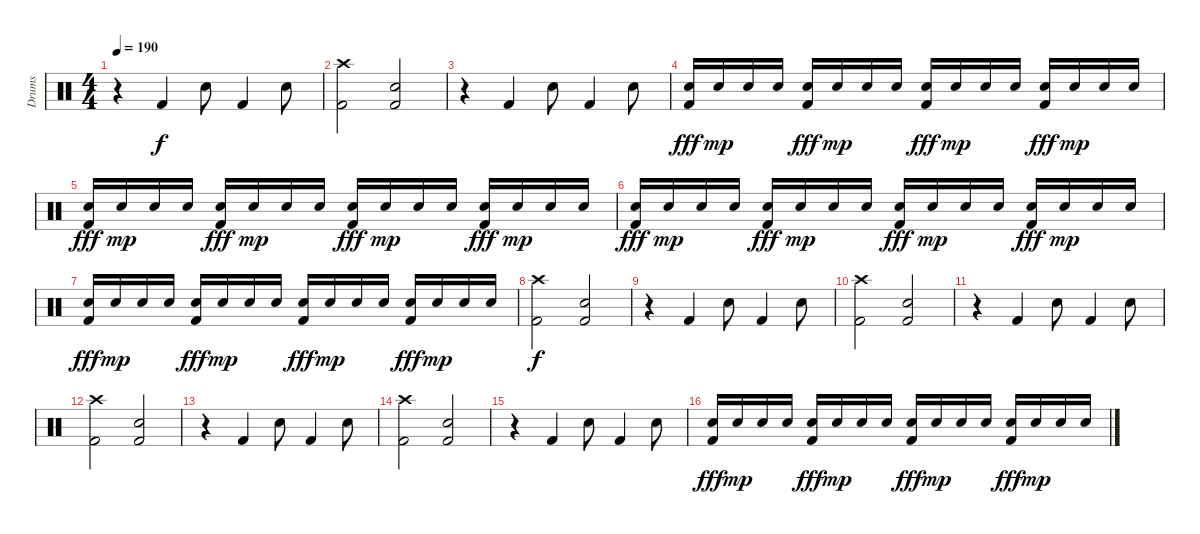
\track ("Drums" "Drums") {instrument percussion}
\staff {score}
\articulation defaults
\ts (4 4)
\tempo 190
\clef neutral
\ks c
r.4{dy f} "Kick (hit) 2".4 "Snare (hit) 2".8 "Kick (hit) 2".4 "Snare (hit) 2".8 |
("Crash high (hit)" "Kick (hit) 2").2 ("Snare (hit) 2" "Kick (hit) 2").2 |
r.4 "Kick (hit) 2".4 "Snare (hit) 2".8 "Kick (hit) 2".4 "Snare (hit) 2".8 |
("Snare (hit) 2" "Kick (hit) 2").16{dy fff} "Snare (hit) 2".16{dy mp} "Snare (hit) 2".16 "Snare (hit) 2".16 ("Snare (hit) 2" "Kick (hit) 2").16{dy fff} "Snare (hit) 2".16{dy mp} "Snare (hit) 2".16 "Snare (hit) 2".16 ("Snare (hit) 2" "Kick (hit) 2").16{dy fff} "Snare (hit) 2".16{dy mp} "Snare (hit) 2".16 "Snare (hit) 2".16 ("Snare (hit) 2" "Kick (hit) 2").16{dy fff} "Snare (hit) 2".16{dy mp} "Snare (hit) 2".16 "Snare (hit) 2".16 |
("Snare (hit) 2" "Kick (hit) 2").16{dy fff} "Snare (hit) 2".16{dy mp} "Snare (hit) 2".16 "Snare (hit) 2".16 ("Snare (hit) 2" "Kick (hit) 2").16{dy fff} "Snare (hit) 2".16{dy mp} "Snare (hit) 2".16 "Snare (hit) 2".16 ("Snare (hit) 2" "Kick (hit) 2").16{dy fff} "Snare (hit) 2".16{dy mp} "Snare (hit) 2".16 "Snare (hit) 2".16 ("Snare (hit) 2" "Kick (hit) 2").16{dy fff} "Snare (hit) 2".16{dy mp} "Snare (hit) 2".16 "Snare (hit) 2".16 |
("Snare (hit) 2" "Kick (hit) 2").16{dy fff} "Snare (hit) 2".16{dy mp} "Snare (hit) 2".16 "Snare (hit) 2".16 ("Snare (hit) 2" "Kick (hit) 2").16{dy fff} "Snare (hit) 2".16{dy mp} "Snare (hit) 2".16 "Snare (hit) 2".16 ("Snare (hit) 2" "Kick (hit) 2").16{dy fff} "Snare (hit) 2".16{dy mp} "Snare (hit) 2".16 "Snare (hit) 2".16 ("Snare (hit) 2" "Kick (hit) 2").16{dy fff} "Snare (hit) 2".16{dy mp} "Snare (hit) 2".16 "Snare (hit) 2".16 |
("Snare (hit) 2" "Kick (hit) 2").16{dy fff} "Snare (hit) 2".16{dy mp} "Snare (hit) 2".16 "Snare (hit) 2".16 ("Snare (hit) 2" "Kick (hit) 2").16{dy fff} "Snare (hit) 2".16{dy mp} "Snare (hit) 2".16 "Snare (hit) 2".16 ("Snare (hit) 2" "Kick (hit) 2").16{dy fff} "Snare (hit) 2".16{dy mp} "Snare (hit) 2".16 "Snare (hit) 2".16 ("Snare (hit) 2" "Kick (hit) 2").16{dy fff} "Snare (hit) 2".16{dy mp} "Snare (hit) 2".16 "Snare (hit) 2".16 |
("Crash high (hit)" "Kick (hit) 2").2{dy f} ("Snare (hit) 2" "Kick (hit) 2").2 |
r.4 "Kick (hit) 2".4 "Snare (hit) 2".8 "Kick (hit) 2".4 "Snare (hit) 2".8 |
("Crash high (hit)" "Kick (hit) 2").2 ("Snare (hit) 2" "Kick (hit) 2").2 |
r.4 "Kick (hit) 2".4 "Snare (hit) 2".8 "Kick (hit) 2".4 "Snare (hit) 2".8 |
("Crash high (hit)" "Kick (hit) 2").2 ("Snare (hit) 2" "Kick (hit) 2").2 |
r.4 "Kick (hit) 2".4 "Snare (hit) 2".8 "Kick (hit) 2".4 "Snare (hit) 2".8 |
("Crash high (hit)" "Kick (hit) 2").2 ("Snare (hit) 2" "Kick (hit) 2").2 |
r.4 "Kick (hit) 2".4 "Snare (hit) 2".8 "Kick (hit) 2".4 "Snare (hit) 2".8 |
("Snare (hit) 2" "Kick (hit) 2").16{dy fff} "Snare (hit) 2".16{dy mp} "Snare (hit) 2".16 "Snare (hit) 2".16 ("Snare (hit) 2" "Kick (hit) 2").16{dy fff} "Snare (hit) 2".16{dy mp} "Snare (hit) 2".16 "Snare (hit) 2".16 ("Snare (hit) 2" "Kick (hit) 2").16{dy fff} "Snare (hit) 2".16{dy mp} "Snare (hit) 2".16 "Snare (hit) 2".16 ("Snare (hit) 2" "Kick (hit) 2").16{dy fff} "Snare (hit) 2".16{dy mp} "Snare (hit) 2".16 "Snare (hit) 2".16
